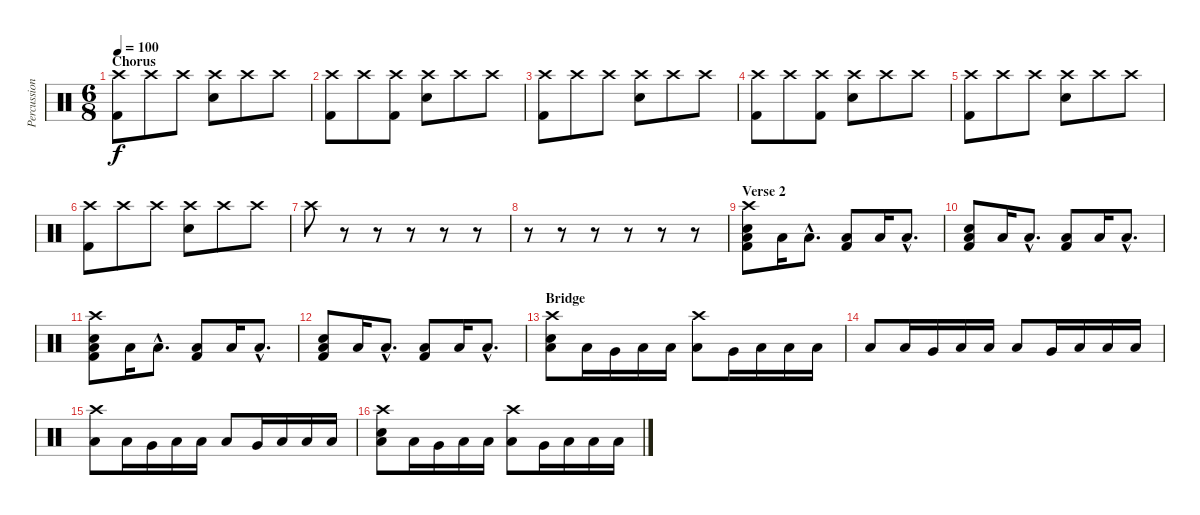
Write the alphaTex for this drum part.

\track ("Percussion" "Percussion") {instrument percussion}
\staff {score}
\articulation defaults
\ts (6 8)
\section ("" "Chorus")
\tempo 100
\clef neutral
\ks c
("Crash high (hit)" "Kick (hit) 2").8{dy f} "Crash high (hit)".8 "Crash high (hit)".8 ("Crash high (hit)" "Electric Snare (hit)").8 "Crash high (hit)".8 "Crash high (hit)".8 |
("Crash high (hit)" "Kick (hit) 2").8 "Crash high (hit)".8 ("Crash high (hit)" "Kick (hit) 2").8 ("Crash high (hit)" "Electric Snare (hit)").8 "Crash high (hit)".8 "Crash high (hit)".8 |
("Crash high (hit)" "Kick (hit) 2").8 "Crash high (hit)".8 "Crash high (hit)".8 ("Crash high (hit)" "Electric Snare (hit)").8 "Crash high (hit)".8 "Crash high (hit)".8 |
("Crash high (hit)" "Kick (hit) 2").8 "Crash high (hit)".8 ("Crash high (hit)" "Kick (hit) 2").8 ("Crash high (hit)" "Electric Snare (hit)").8 "Crash high (hit)".8 "Crash high (hit)".8 |
("Crash high (hit)" "Kick (hit) 2").8 "Crash high (hit)".8 "Crash high (hit)".8 ("Crash high (hit)" "Electric Snare (hit)").8 "Crash high (hit)".8 "Crash high (hit)".8 |
("Crash high (hit)" "Kick (hit) 2").8 "Crash high (hit)".8 "Crash high (hit)".8 ("Crash high (hit)" "Electric Snare (hit)").8 "Crash high (hit)".8 "Crash high (hit)".8 |
"Crash high (hit)".8 r.8 r.8 r.8 r.8 r.8 |
r.8 r.8 r.8 r.8 r.8 r.8 |
\section ("" "Verse 2")
("Crash high (hit)" "Electric Snare (hit)" "Low Floor Tom (hit)" "Kick (hit) 2").8 "Low Floor Tom (hit)".16 "Low Floor Tom (hit)"{hac}.8{d} ("Low Floor Tom (hit)" "Kick (hit) 2").8 "Low Floor Tom (hit)".16 "Low Floor Tom (hit)"{hac}.8{d} |
("Electric Snare (hit)" "Low Floor Tom (hit)" "Kick (hit) 2").8 "Low Floor Tom (hit)".16 "Low Floor Tom (hit)"{hac}.8{d} ("Low Floor Tom (hit)" "Kick (hit) 2").8 "Low Floor Tom (hit)".16 "Low Floor Tom (hit)"{hac}.8{d} |
("Crash high (hit)" "Electric Snare (hit)" "Low Floor Tom (hit)" "Kick (hit) 2").8 "Low Floor Tom (hit)".16 "Low Floor Tom (hit)"{hac}.8{d} ("Low Floor Tom (hit)" "Kick (hit) 2").8 "Low Floor Tom (hit)".16 "Low Floor Tom (hit)"{hac}.8{d} |
("Electric Snare (hit)" "Low Floor Tom (hit)" "Kick (hit) 2").8 "Low Floor Tom (hit)".16 "Low Floor Tom (hit)"{hac}.8{d} ("Low Floor Tom (hit)" "Kick (hit) 2").8 "Low Floor Tom (hit)".16 "Low Floor Tom (hit)"{hac}.8{d} |
\section ("" "Bridge")
("Snare (hit) 2" "Crash high (hit)" "Low Floor Tom (hit)").8 "Low Floor Tom (hit)".16 "Very Low Tom (hit)".16 "Low Tom (hit)".16 "Low Floor Tom (hit)".16 ("Crash high (hit)" "Low Floor Tom (hit)").8 "Very Low Tom (hit)".16 "Low Tom (hit)".16 "Low Floor Tom (hit)".16 "Low Floor Tom (hit)".16 |
"Low Floor Tom (hit)".8 "Low Floor Tom (hit)".16 "Very Low Tom (hit)".16 "Low Tom (hit)".16 "Low Floor Tom (hit)".16 "Low Floor Tom (hit)".8 "Very Low Tom (hit)".16 "Low Tom (hit)".16 "Low Floor Tom (hit)".16 "Low Floor Tom (hit)".16 |
("Crash high (hit)" "Low Floor Tom (hit)").8 "Low Floor Tom (hit)".16 "Very Low Tom (hit)".16 "Low Tom (hit)".16 "Low Floor Tom (hit)".16 "Low Floor Tom (hit)".8 "Very Low Tom (hit)".16 "Low Tom (hit)".16 "Low Floor Tom (hit)".16 "Low Floor Tom (hit)".16 |
("Snare (hit) 2" "Crash high (hit)" "Low Floor Tom (hit)").8 "Low Floor Tom (hit)".16 "Very Low Tom (hit)".16 "Low Tom (hit)".16 "Low Floor Tom (hit)".16 ("Crash high (hit)" "Low Floor Tom (hit)").8 "Very Low Tom (hit)".16 "Low Tom (hit)".16 "Low Floor Tom (hit)".16 "Low Floor Tom (hit)".16
